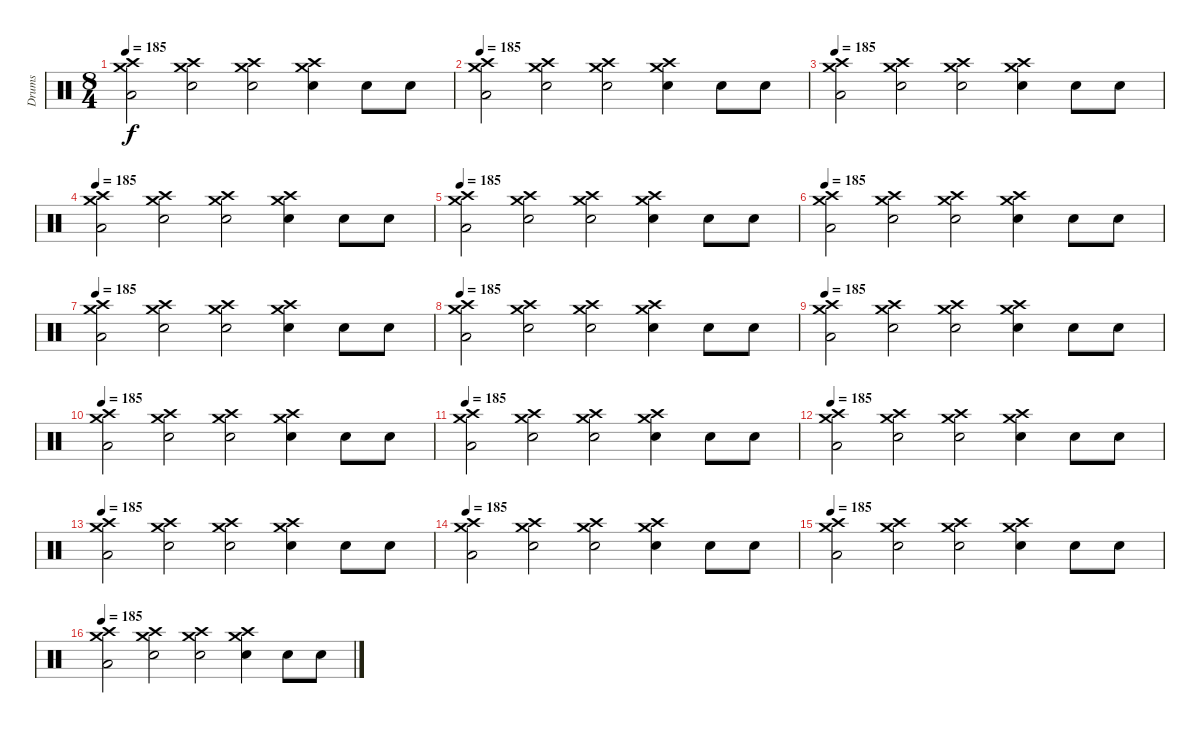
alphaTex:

\track ("Drums" "Drums") {instrument percussion}
\staff {score}
\articulation defaults
\ts (8 4)
\tempo 185
\clef neutral
\ks c
("Crash high (hit)" "Low Floor Tom (hit)" "Crash medium (hit)").2{dy f} ("Crash high (hit)" "Electric Snare (hit)" "Crash medium (hit)").2 ("Crash high (hit)" "Electric Snare (hit)" "Crash medium (hit)").2 ("Crash high (hit)" "Electric Snare (hit)" "Crash medium (hit)").4 "Electric Snare (hit)".8 "Electric Snare (hit)".8 |
\tempo 185
("Crash high (hit)" "Low Floor Tom (hit)" "Crash medium (hit)").2 ("Crash high (hit)" "Electric Snare (hit)" "Crash medium (hit)").2 ("Crash high (hit)" "Electric Snare (hit)" "Crash medium (hit)").2 ("Crash high (hit)" "Electric Snare (hit)" "Crash medium (hit)").4 "Electric Snare (hit)".8 "Electric Snare (hit)".8 |
\tempo 185
("Crash high (hit)" "Low Floor Tom (hit)" "Crash medium (hit)").2 ("Crash high (hit)" "Electric Snare (hit)" "Crash medium (hit)").2 ("Crash high (hit)" "Electric Snare (hit)" "Crash medium (hit)").2 ("Crash high (hit)" "Electric Snare (hit)" "Crash medium (hit)").4 "Electric Snare (hit)".8 "Electric Snare (hit)".8 |
\tempo 185
("Crash high (hit)" "Low Floor Tom (hit)" "Crash medium (hit)").2 ("Crash high (hit)" "Electric Snare (hit)" "Crash medium (hit)").2 ("Crash high (hit)" "Electric Snare (hit)" "Crash medium (hit)").2 ("Crash high (hit)" "Electric Snare (hit)" "Crash medium (hit)").4 "Electric Snare (hit)".8 "Electric Snare (hit)".8 |
\tempo 185
("Crash high (hit)" "Low Floor Tom (hit)" "Crash medium (hit)").2 ("Crash high (hit)" "Electric Snare (hit)" "Crash medium (hit)").2 ("Crash high (hit)" "Electric Snare (hit)" "Crash medium (hit)").2 ("Crash high (hit)" "Electric Snare (hit)" "Crash medium (hit)").4 "Electric Snare (hit)".8 "Electric Snare (hit)".8 |
\tempo 185
("Crash high (hit)" "Low Floor Tom (hit)" "Crash medium (hit)").2 ("Crash high (hit)" "Electric Snare (hit)" "Crash medium (hit)").2 ("Crash high (hit)" "Electric Snare (hit)" "Crash medium (hit)").2 ("Crash high (hit)" "Electric Snare (hit)" "Crash medium (hit)").4 "Electric Snare (hit)".8 "Electric Snare (hit)".8 |
\tempo 185
("Crash high (hit)" "Low Floor Tom (hit)" "Crash medium (hit)").2 ("Crash high (hit)" "Electric Snare (hit)" "Crash medium (hit)").2 ("Crash high (hit)" "Electric Snare (hit)" "Crash medium (hit)").2 ("Crash high (hit)" "Electric Snare (hit)" "Crash medium (hit)").4 "Electric Snare (hit)".8 "Electric Snare (hit)".8 |
\tempo 185
("Crash high (hit)" "Low Floor Tom (hit)" "Crash medium (hit)").2 ("Crash high (hit)" "Electric Snare (hit)" "Crash medium (hit)").2 ("Crash high (hit)" "Electric Snare (hit)" "Crash medium (hit)").2 ("Crash high (hit)" "Electric Snare (hit)" "Crash medium (hit)").4 "Electric Snare (hit)".8 "Electric Snare (hit)".8 |
\tempo 185
("Crash high (hit)" "Low Floor Tom (hit)" "Crash medium (hit)").2 ("Crash high (hit)" "Electric Snare (hit)" "Crash medium (hit)").2 ("Crash high (hit)" "Electric Snare (hit)" "Crash medium (hit)").2 ("Crash high (hit)" "Electric Snare (hit)" "Crash medium (hit)").4 "Electric Snare (hit)".8 "Electric Snare (hit)".8 |
\tempo 185
("Crash high (hit)" "Low Floor Tom (hit)" "Crash medium (hit)").2 ("Crash high (hit)" "Electric Snare (hit)" "Crash medium (hit)").2 ("Crash high (hit)" "Electric Snare (hit)" "Crash medium (hit)").2 ("Crash high (hit)" "Electric Snare (hit)" "Crash medium (hit)").4 "Electric Snare (hit)".8 "Electric Snare (hit)".8 |
\tempo 185
("Crash high (hit)" "Low Floor Tom (hit)" "Crash medium (hit)").2 ("Crash high (hit)" "Electric Snare (hit)" "Crash medium (hit)").2 ("Crash high (hit)" "Electric Snare (hit)" "Crash medium (hit)").2 ("Crash high (hit)" "Electric Snare (hit)" "Crash medium (hit)").4 "Electric Snare (hit)".8 "Electric Snare (hit)".8 |
\tempo 185
("Crash high (hit)" "Low Floor Tom (hit)" "Crash medium (hit)").2 ("Crash high (hit)" "Electric Snare (hit)" "Crash medium (hit)").2 ("Crash high (hit)" "Electric Snare (hit)" "Crash medium (hit)").2 ("Crash high (hit)" "Electric Snare (hit)" "Crash medium (hit)").4 "Electric Snare (hit)".8 "Electric Snare (hit)".8 |
\tempo 185
("Crash high (hit)" "Low Floor Tom (hit)" "Crash medium (hit)").2 ("Crash high (hit)" "Electric Snare (hit)" "Crash medium (hit)").2 ("Crash high (hit)" "Electric Snare (hit)" "Crash medium (hit)").2 ("Crash high (hit)" "Electric Snare (hit)" "Crash medium (hit)").4 "Electric Snare (hit)".8 "Electric Snare (hit)".8 |
\tempo 185
("Crash high (hit)" "Low Floor Tom (hit)" "Crash medium (hit)").2 ("Crash high (hit)" "Electric Snare (hit)" "Crash medium (hit)").2 ("Crash high (hit)" "Electric Snare (hit)" "Crash medium (hit)").2 ("Crash high (hit)" "Electric Snare (hit)" "Crash medium (hit)").4 "Electric Snare (hit)".8 "Electric Snare (hit)".8 |
\tempo 185
("Crash high (hit)" "Low Floor Tom (hit)" "Crash medium (hit)").2 ("Crash high (hit)" "Electric Snare (hit)" "Crash medium (hit)").2 ("Crash high (hit)" "Electric Snare (hit)" "Crash medium (hit)").2 ("Crash high (hit)" "Electric Snare (hit)" "Crash medium (hit)").4 "Electric Snare (hit)".8 "Electric Snare (hit)".8 |
\tempo 185
("Crash high (hit)" "Low Floor Tom (hit)" "Crash medium (hit)").2 ("Crash high (hit)" "Electric Snare (hit)" "Crash medium (hit)").2 ("Crash high (hit)" "Electric Snare (hit)" "Crash medium (hit)").2 ("Crash high (hit)" "Electric Snare (hit)" "Crash medium (hit)").4 "Electric Snare (hit)".8 "Electric Snare (hit)".8
